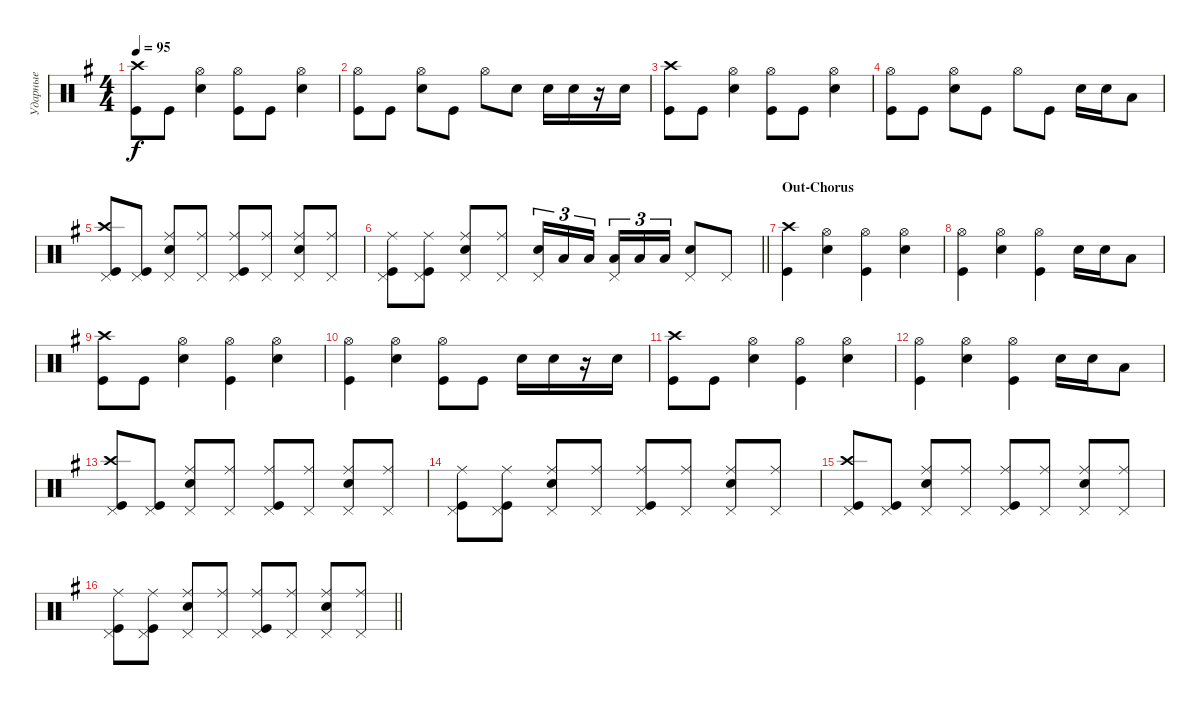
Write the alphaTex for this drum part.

\track ("Ударные" "Ударные") {instrument percussion}
\staff {score}
\articulation defaults
\ts (4 4)
\tempo 95
\clef neutral
\ks eminor
("Kick (hit)" "Crash high (hit)").8{dy f} "Kick (hit)".8 ("Snare (hit) 2" "Hi-Hat (open)").4 ("Kick (hit)" "Hi-Hat (open)").8 "Kick (hit)".8 ("Snare (hit) 2" "Hi-Hat (open)").4 |
("Kick (hit)" "Hi-Hat (open)").8 "Kick (hit)".8 ("Snare (hit) 2" "Hi-Hat (open)").8 "Kick (hit)".8 "Hi-Hat (open)".8 "Snare (hit) 2".8 "Snare (hit) 2".16 "Snare (hit) 2".16 r.16 "Snare (hit) 2".16 |
("Kick (hit)" "Crash high (hit)").8 "Kick (hit)".8 ("Snare (hit) 2" "Hi-Hat (open)").4 ("Kick (hit)" "Hi-Hat (open)").8 "Kick (hit)".8 ("Snare (hit) 2" "Hi-Hat (open)").4 |
("Kick (hit)" "Hi-Hat (open)").8 "Kick (hit)".8 ("Snare (hit) 2" "Hi-Hat (open)").8 "Kick (hit)".8 "Hi-Hat (open)".8 "Kick (hit)".8 "Snare (hit) 2".16 "Snare (hit) 2".16 "Low Tom (hit)".8 |
("Pedal Hi-Hat (hit)" "Crash high (hit)" "Kick (hit)").8 ("Pedal Hi-Hat (hit)" "Kick (hit)").8 ("Pedal Hi-Hat (hit)" "Snare (hit) 2" "Ride (middle)").8 ("Pedal Hi-Hat (hit)" "Ride (middle)").8 ("Pedal Hi-Hat (hit)" "Kick (hit)" "Ride (middle)").8 ("Pedal Hi-Hat (hit)" "Ride (middle)").8 ("Pedal Hi-Hat (hit)" "Snare (hit) 2" "Ride (middle)").8 ("Pedal Hi-Hat (hit)" "Ride (middle)").8 |
\barLineRight lightlight
("Pedal Hi-Hat (hit)" "Ride (middle)" "Kick (hit)").8 ("Pedal Hi-Hat (hit)" "Kick (hit)" "Ride (middle)").8 ("Pedal Hi-Hat (hit)" "Snare (hit) 2" "Ride (middle)").8 ("Pedal Hi-Hat (hit)" "Ride (middle)").8 ("Snare (hit) 2" "Pedal Hi-Hat (hit)").16{tu (3 2)} "Low Tom (hit)".16{tu (3 2)} "Low Tom (hit)".16{tu (3 2) beam splitsecondary} ("Low Tom (hit)" "Pedal Hi-Hat (hit)").16{tu (3 2)} "Low Tom (hit)".16{tu (3 2)} "Low Tom (hit)".16{tu (3 2)} ("Snare (hit) 2" "Pedal Hi-Hat (hit)").8 "Pedal Hi-Hat (hit)".8 |
\section ("" "Out-Chorus")
("Kick (hit)" "Crash high (hit)").4 ("Snare (hit) 2" "Hi-Hat (open)").4 ("Kick (hit)" "Hi-Hat (open)").4 ("Snare (hit) 2" "Hi-Hat (open)").4 |
("Kick (hit)" "Hi-Hat (open)").4 ("Snare (hit) 2" "Hi-Hat (open)").4 ("Hi-Hat (open)" "Kick (hit)").4 "Snare (hit) 2".16 "Snare (hit) 2".16 "Low Tom (hit)".8 |
("Kick (hit)" "Crash high (hit)").8 "Kick (hit)".8 ("Snare (hit) 2" "Hi-Hat (open)").4 ("Kick (hit)" "Hi-Hat (open)").4 ("Snare (hit) 2" "Hi-Hat (open)").4 |
("Kick (hit)" "Hi-Hat (open)").4 ("Snare (hit) 2" "Hi-Hat (open)").4 ("Hi-Hat (open)" "Kick (hit)").8 "Kick (hit)".8 "Snare (hit) 2".16 "Snare (hit) 2".16 r.16 "Snare (hit) 2".16 |
("Kick (hit)" "Crash high (hit)").8 "Kick (hit)".8 ("Snare (hit) 2" "Hi-Hat (open)").4 ("Kick (hit)" "Hi-Hat (open)").4 ("Snare (hit) 2" "Hi-Hat (open)").4 |
("Kick (hit)" "Hi-Hat (open)").4 ("Snare (hit) 2" "Hi-Hat (open)").4 ("Hi-Hat (open)" "Kick (hit)").4 "Snare (hit) 2".16 "Snare (hit) 2".16 "Low Tom (hit)".8 |
("Pedal Hi-Hat (hit)" "Crash high (hit)" "Kick (hit)").8 ("Pedal Hi-Hat (hit)" "Kick (hit)").8 ("Pedal Hi-Hat (hit)" "Snare (hit) 2" "Ride (middle)").8 ("Pedal Hi-Hat (hit)" "Ride (middle)").8 ("Pedal Hi-Hat (hit)" "Kick (hit)" "Ride (middle)").8 ("Pedal Hi-Hat (hit)" "Ride (middle)").8 ("Pedal Hi-Hat (hit)" "Snare (hit) 2" "Ride (middle)").8 ("Pedal Hi-Hat (hit)" "Ride (middle)").8 |
("Pedal Hi-Hat (hit)" "Ride (middle)" "Kick (hit)").8 ("Pedal Hi-Hat (hit)" "Kick (hit)" "Ride (middle)").8 ("Pedal Hi-Hat (hit)" "Snare (hit) 2" "Ride (middle)").8 ("Pedal Hi-Hat (hit)" "Ride (middle)").8 ("Pedal Hi-Hat (hit)" "Kick (hit)" "Ride (middle)").8 ("Pedal Hi-Hat (hit)" "Ride (middle)").8 ("Pedal Hi-Hat (hit)" "Snare (hit) 2" "Ride (middle)").8 ("Pedal Hi-Hat (hit)" "Ride (middle)").8 |
("Pedal Hi-Hat (hit)" "Crash high (hit)" "Kick (hit)").8 ("Pedal Hi-Hat (hit)" "Kick (hit)").8 ("Pedal Hi-Hat (hit)" "Snare (hit) 2" "Ride (middle)").8 ("Pedal Hi-Hat (hit)" "Ride (middle)").8 ("Pedal Hi-Hat (hit)" "Kick (hit)" "Ride (middle)").8 ("Pedal Hi-Hat (hit)" "Ride (middle)").8 ("Pedal Hi-Hat (hit)" "Snare (hit) 2" "Ride (middle)").8 ("Pedal Hi-Hat (hit)" "Ride (middle)").8 |
\barLineRight lightlight
("Pedal Hi-Hat (hit)" "Ride (middle)" "Kick (hit)").8 ("Pedal Hi-Hat (hit)" "Kick (hit)" "Ride (middle)").8 ("Pedal Hi-Hat (hit)" "Snare (hit) 2" "Ride (middle)").8 ("Pedal Hi-Hat (hit)" "Ride (middle)").8 ("Pedal Hi-Hat (hit)" "Kick (hit)" "Ride (middle)").8 ("Pedal Hi-Hat (hit)" "Ride (middle)").8 ("Pedal Hi-Hat (hit)" "Snare (hit) 2" "Ride (middle)").8 ("Pedal Hi-Hat (hit)" "Ride (middle)").8
